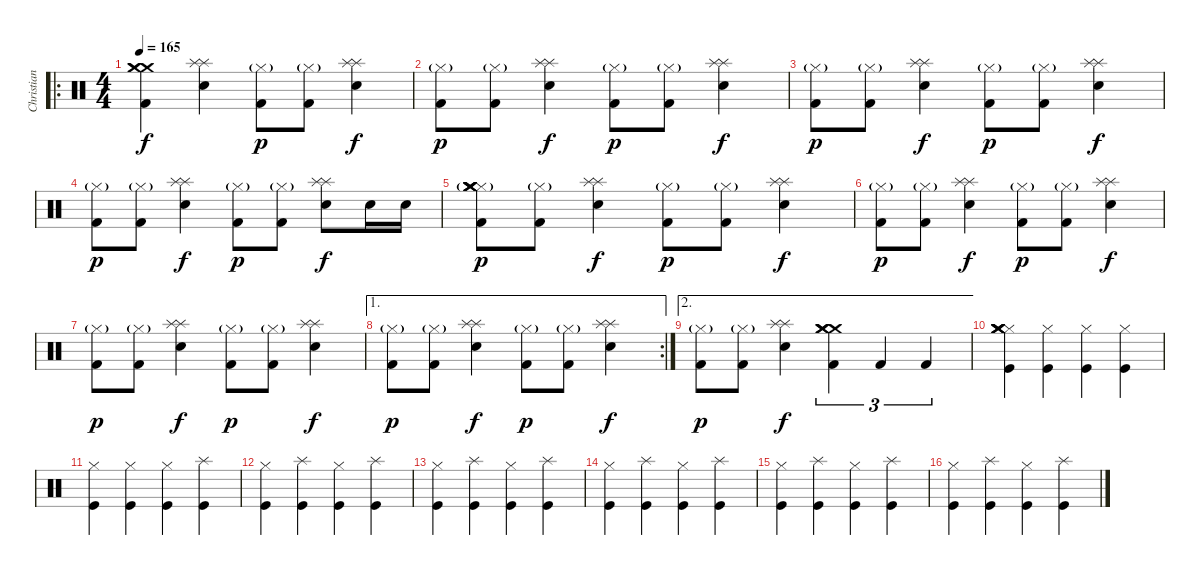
\track ("Christian Batteria" "Christian ") {instrument percussion}
\staff {score}
\articulation defaults
\ro
\ts (4 4)
\tempo 165
\clef neutral
\ks c
("Crash medium (hit)" "Crash medium (hit)" "Crash medium (hit)" "Kick (hit) 2").4{dy f} ("Splash (hit)" "Splash (hit)" "Snare (hit) 2").4 ("Hi-Hat (closed)"{g} "Kick (hit) 2").8{dy p} ("Hi-Hat (closed)"{g} "Kick (hit) 2").8 ("Splash (hit)" "Splash (hit)" "Snare (hit) 2").4{dy f} |
("Hi-Hat (closed)"{g} "Kick (hit) 2").8{dy p} ("Hi-Hat (closed)"{g} "Kick (hit) 2").8 ("Splash (hit)" "Splash (hit)" "Snare (hit) 2").4{dy f} ("Hi-Hat (closed)"{g} "Kick (hit) 2").8{dy p} ("Hi-Hat (closed)"{g} "Kick (hit) 2").8 ("Splash (hit)" "Splash (hit)" "Snare (hit) 2").4{dy f} |
("Hi-Hat (closed)"{g} "Kick (hit) 2").8{dy p} ("Hi-Hat (closed)"{g} "Kick (hit) 2").8 ("Splash (hit)" "Splash (hit)" "Snare (hit) 2").4{dy f} ("Hi-Hat (closed)"{g} "Kick (hit) 2").8{dy p} ("Hi-Hat (closed)"{g} "Kick (hit) 2").8 ("Splash (hit)" "Splash (hit)" "Snare (hit) 2").4{dy f} |
("Hi-Hat (closed)"{g} "Kick (hit) 2").8{dy p} ("Hi-Hat (closed)"{g} "Kick (hit) 2").8 ("Splash (hit)" "Splash (hit)" "Snare (hit) 2").4{dy f} ("Hi-Hat (closed)"{g} "Kick (hit) 2").8{dy p} ("Hi-Hat (closed)"{g} "Kick (hit) 2").8 ("Splash (hit)" "Splash (hit)" "Snare (hit) 2").8{dy f} "Electric Snare (hit)".16 "Electric Snare (hit)".16 |
("Hi-Hat (closed)"{g} "Crash medium (hit)" "Crash medium (hit)" "Crash medium (hit)" "Crash medium (hit)" "Kick (hit) 2").8{dy p} ("Hi-Hat (closed)"{g} "Kick (hit) 2").8 ("Splash (hit)" "Splash (hit)" "Snare (hit) 2").4{dy f} ("Hi-Hat (closed)"{g} "Kick (hit) 2").8{dy p} ("Hi-Hat (closed)"{g} "Kick (hit) 2").8 ("Splash (hit)" "Splash (hit)" "Snare (hit) 2").4{dy f} |
("Hi-Hat (closed)"{g} "Kick (hit) 2").8{dy p} ("Hi-Hat (closed)"{g} "Kick (hit) 2").8 ("Splash (hit)" "Splash (hit)" "Snare (hit) 2").4{dy f} ("Hi-Hat (closed)"{g} "Kick (hit) 2").8{dy p} ("Hi-Hat (closed)"{g} "Kick (hit) 2").8 ("Splash (hit)" "Splash (hit)" "Snare (hit) 2").4{dy f} |
("Hi-Hat (closed)"{g} "Kick (hit) 2").8{dy p} ("Hi-Hat (closed)"{g} "Kick (hit) 2").8 ("Splash (hit)" "Splash (hit)" "Snare (hit) 2").4{dy f} ("Hi-Hat (closed)"{g} "Kick (hit) 2").8{dy p} ("Hi-Hat (closed)"{g} "Kick (hit) 2").8 ("Splash (hit)" "Splash (hit)" "Snare (hit) 2").4{dy f} |
\ae 1
\rc 2
("Hi-Hat (closed)"{g} "Kick (hit) 2").8{dy p} ("Hi-Hat (closed)"{g} "Kick (hit) 2").8 ("Splash (hit)" "Splash (hit)" "Snare (hit) 2").4{dy f} ("Hi-Hat (closed)"{g} "Kick (hit) 2").8{dy p} ("Hi-Hat (closed)"{g} "Kick (hit) 2").8 ("Splash (hit)" "Splash (hit)" "Snare (hit) 2").4{dy f} |
\ae 2
("Hi-Hat (closed)"{g} "Kick (hit) 2").8{dy p} ("Hi-Hat (closed)"{g} "Kick (hit) 2").8 ("Splash (hit)" "Splash (hit)" "Snare (hit) 2").4{dy f} ("Crash medium (hit)" "Crash medium (hit)" "Crash medium (hit)" "Crash medium (hit)" "Kick (hit) 2").4{tu (3 2)} "Kick (hit) 2".4{tu (3 2)} "Kick (hit) 2".4{tu (3 2)} |
("Hi-Hat (closed)" "Crash medium (hit)" "Crash medium (hit)" "Crash medium (hit)" "Crash medium (hit)" "Kick (hit)").4 ("Hi-Hat (closed)" "Kick (hit)").4 ("Hi-Hat (closed)" "Kick (hit)").4 ("Hi-Hat (closed)" "Kick (hit)").4 |
("Hi-Hat (closed)" "Kick (hit)").4 ("Hi-Hat (closed)" "Kick (hit)").4 ("Hi-Hat (closed)" "Kick (hit)").4 ("Splash (hit)" "Kick (hit)").4 |
("Hi-Hat (closed)" "Kick (hit)").4 ("Splash (hit)" "Kick (hit)").4 ("Hi-Hat (closed)" "Kick (hit)").4 ("Splash (hit)" "Kick (hit)").4 |
("Hi-Hat (closed)" "Kick (hit)").4 ("Splash (hit)" "Kick (hit)").4 ("Hi-Hat (closed)" "Kick (hit)").4 ("Splash (hit)" "Kick (hit)").4 |
("Hi-Hat (closed)" "Kick (hit)").4 ("Splash (hit)" "Kick (hit)").4 ("Hi-Hat (closed)" "Kick (hit)").4 ("Splash (hit)" "Kick (hit)").4 |
("Hi-Hat (closed)" "Kick (hit)").4 ("Splash (hit)" "Kick (hit)").4 ("Hi-Hat (closed)" "Kick (hit)").4 ("Splash (hit)" "Kick (hit)").4 |
("Hi-Hat (closed)" "Kick (hit)").4 ("Splash (hit)" "Kick (hit)").4 ("Hi-Hat (closed)" "Kick (hit)").4 ("Splash (hit)" "Kick (hit)").4
